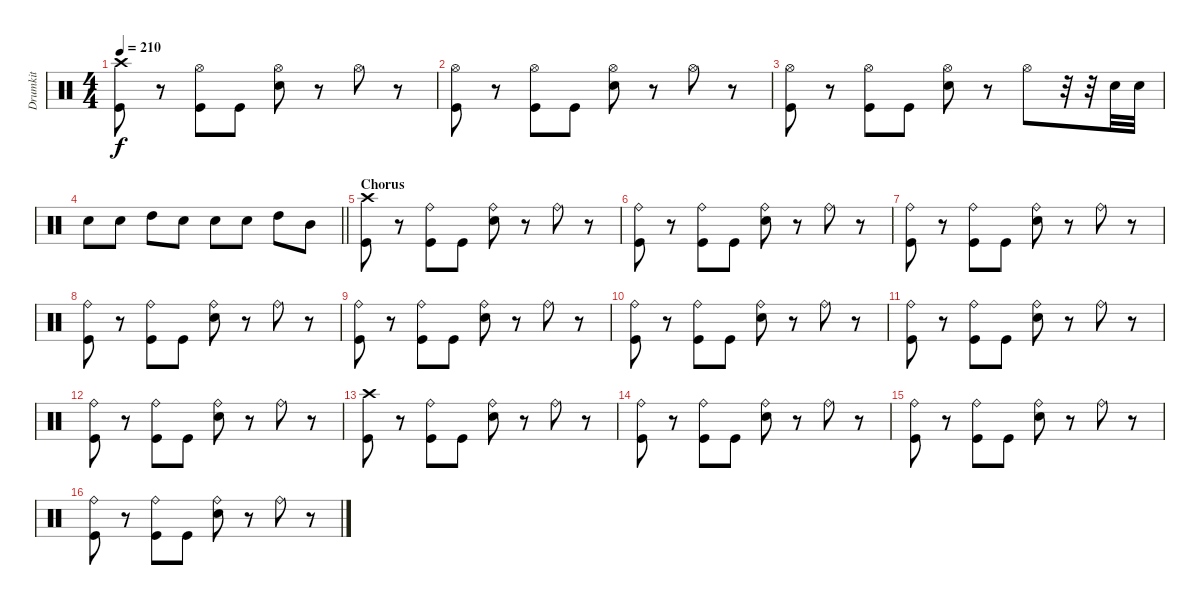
\track ("Drumkit" "Drumkit") {instrument percussion}
\staff {score}
\articulation defaults
\ts (4 4)
\tempo 210
\clef neutral
\ks c
("Crash high (hit)" "Kick (hit)").8{dy f} r.8 ("Hi-Hat (open)" "Kick (hit)").8 "Kick (hit)".8 ("Hi-Hat (open)" "Snare (hit) 2").8 r.8 "Hi-Hat (open)".8 r.8 |
("Hi-Hat (open)" "Kick (hit)").8 r.8 ("Hi-Hat (open)" "Kick (hit)").8 "Kick (hit)".8 ("Hi-Hat (open)" "Snare (hit) 2").8 r.8 "Hi-Hat (open)".8 r.8 |
("Hi-Hat (open)" "Kick (hit)").8 r.8 ("Hi-Hat (open)" "Kick (hit)").8 "Kick (hit)".8 ("Hi-Hat (open)" "Snare (hit) 2").8 r.8 "Hi-Hat (open)".8 r.32 r.32 "Snare (hit) 2".32 "Snare (hit) 2".32 |
\barLineRight lightlight "Snare (hit) 2".8 "Snare (hit) 2".8 "High Tom (hit)".8 "Snare (hit) 2".8 "Snare (hit) 2".8 "Snare (hit) 2".8 "High Tom (hit)".8 "Mid Tom (hit)".8
|
\section ("" "Chorus")
("Crash high (hit)" "Kick (hit)").8 r.8 ("Ride (bell)" "Kick (hit)").8 "Kick (hit)".8 ("Ride (bell)" "Snare (hit) 2").8 r.8 "Ride (bell)".8 r.8 |
("Ride (bell)" "Kick (hit)").8 r.8 ("Ride (bell)" "Kick (hit)").8 "Kick (hit)".8 ("Ride (bell)" "Snare (hit) 2").8 r.8 "Ride (bell)".8 r.8 |
("Ride (bell)" "Kick (hit)").8 r.8 ("Ride (bell)" "Kick (hit)").8 "Kick (hit)".8 ("Ride (bell)" "Snare (hit) 2").8 r.8 "Ride (bell)".8 r.8 |
("Ride (bell)" "Kick (hit)").8 r.8 ("Ride (bell)" "Kick (hit)").8 "Kick (hit)".8 ("Ride (bell)" "Snare (hit) 2").8 r.8 "Ride (bell)".8 r.8 |
("Ride (bell)" "Kick (hit)").8 r.8 ("Ride (bell)" "Kick (hit)").8 "Kick (hit)".8 ("Ride (bell)" "Snare (hit) 2").8 r.8 "Ride (bell)".8 r.8 |
("Ride (bell)" "Kick (hit)").8 r.8 ("Ride (bell)" "Kick (hit)").8 "Kick (hit)".8 ("Ride (bell)" "Snare (hit) 2").8 r.8 "Ride (bell)".8 r.8 |
("Ride (bell)" "Kick (hit)").8 r.8 ("Ride (bell)" "Kick (hit)").8 "Kick (hit)".8 ("Ride (bell)" "Snare (hit) 2").8 r.8 "Ride (bell)".8 r.8 |
("Ride (bell)" "Kick (hit)").8 r.8 ("Ride (bell)" "Kick (hit)").8 "Kick (hit)".8 ("Ride (bell)" "Snare (hit) 2").8 r.8 "Ride (bell)".8 r.8 |
("Crash high (hit)" "Kick (hit)").8 r.8 ("Ride (bell)" "Kick (hit)").8 "Kick (hit)".8 ("Ride (bell)" "Snare (hit) 2").8 r.8 "Ride (bell)".8 r.8 |
("Ride (bell)" "Kick (hit)").8 r.8 ("Ride (bell)" "Kick (hit)").8 "Kick (hit)".8 ("Ride (bell)" "Snare (hit) 2").8 r.8 "Ride (bell)".8 r.8 |
("Ride (bell)" "Kick (hit)").8 r.8 ("Ride (bell)" "Kick (hit)").8 "Kick (hit)".8 ("Ride (bell)" "Snare (hit) 2").8 r.8 "Ride (bell)".8 r.8 |
("Ride (bell)" "Kick (hit)").8 r.8 ("Ride (bell)" "Kick (hit)").8 "Kick (hit)".8 ("Ride (bell)" "Snare (hit) 2").8 r.8 "Ride (bell)".8 r.8
